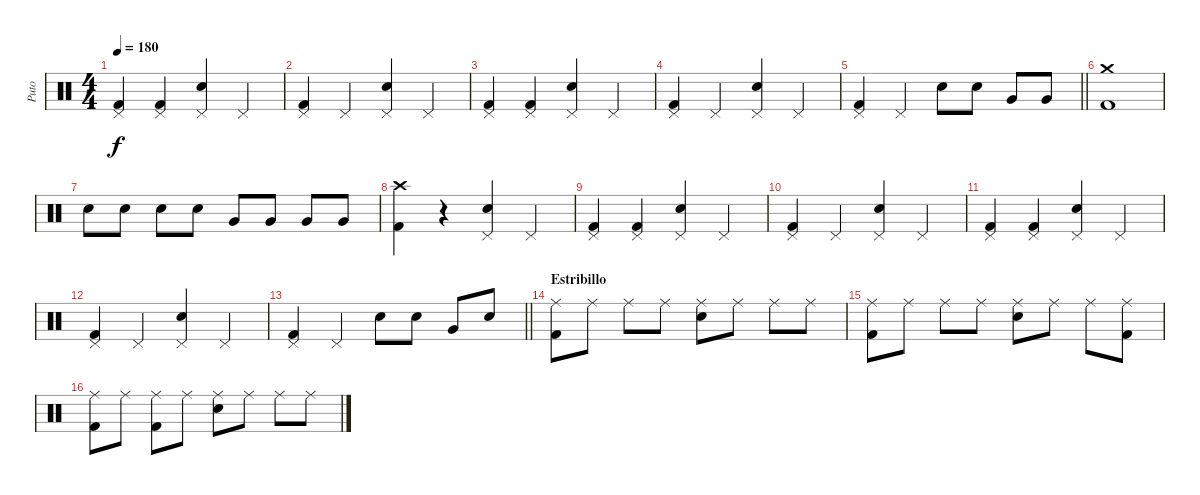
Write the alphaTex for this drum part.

\track ("Puto" "Puto") {instrument percussion}
\staff {score}
\articulation defaults
\ts (4 4)
\tempo 180
\clef neutral
\ks c
("Kick (hit) 2" "Pedal Hi-Hat (hit)").4{dy f} ("Kick (hit) 2" "Pedal Hi-Hat (hit)").4 ("Snare (hit) 2" "Pedal Hi-Hat (hit)").4 "Pedal Hi-Hat (hit)".4 |
("Kick (hit) 2" "Pedal Hi-Hat (hit)").4 "Pedal Hi-Hat (hit)".4 ("Snare (hit) 2" "Pedal Hi-Hat (hit)").4 "Pedal Hi-Hat (hit)".4 |
("Kick (hit) 2" "Pedal Hi-Hat (hit)").4 ("Kick (hit) 2" "Pedal Hi-Hat (hit)").4 ("Snare (hit) 2" "Pedal Hi-Hat (hit)").4 "Pedal Hi-Hat (hit)".4 |
("Kick (hit) 2" "Pedal Hi-Hat (hit)").4 "Pedal Hi-Hat (hit)".4 ("Snare (hit) 2" "Pedal Hi-Hat (hit)").4 "Pedal Hi-Hat (hit)".4 |
\barLineRight lightlight
("Kick (hit) 2" "Pedal Hi-Hat (hit)").4 "Pedal Hi-Hat (hit)".4 "Snare (hit) 2".8 "Snare (hit) 2".8 "Very Low Tom (hit)".8 "Very Low Tom (hit)".8 |
("Kick (hit) 2" "Crash medium (hit)").1 |
"Snare (hit) 2".8 "Snare (hit) 2".8 "Snare (hit) 2".8 "Snare (hit) 2".8 "Very Low Tom (hit)".8 "Very Low Tom (hit)".8 "Very Low Tom (hit)".8 "Very Low Tom (hit)".8 |
("Kick (hit) 2" "Crash high (hit)").4 r.4 ("Snare (hit) 2" "Pedal Hi-Hat (hit)").4 "Pedal Hi-Hat (hit)".4 |
("Kick (hit) 2" "Pedal Hi-Hat (hit)").4 ("Kick (hit) 2" "Pedal Hi-Hat (hit)").4 ("Snare (hit) 2" "Pedal Hi-Hat (hit)").4 "Pedal Hi-Hat (hit)".4 |
("Kick (hit) 2" "Pedal Hi-Hat (hit)").4 "Pedal Hi-Hat (hit)".4 ("Snare (hit) 2" "Pedal Hi-Hat (hit)").4 "Pedal Hi-Hat (hit)".4 |
("Kick (hit) 2" "Pedal Hi-Hat (hit)").4 ("Kick (hit) 2" "Pedal Hi-Hat (hit)").4 ("Snare (hit) 2" "Pedal Hi-Hat (hit)").4 "Pedal Hi-Hat (hit)".4 |
("Kick (hit) 2" "Pedal Hi-Hat (hit)").4 "Pedal Hi-Hat (hit)".4 ("Snare (hit) 2" "Pedal Hi-Hat (hit)").4 "Pedal Hi-Hat (hit)".4 |
\barLineRight lightlight
("Kick (hit) 2" "Pedal Hi-Hat (hit)").4 "Pedal Hi-Hat (hit)".4 "Snare (hit) 2".8 "Snare (hit) 2".8 "Very Low Tom (hit)".8 "Snare (hit) 2".8 |
\section ("" "Estribillo")
("Kick (hit) 2" "Ride (middle)").8 "Ride (middle)".8 "Ride (middle)".8 "Ride (middle)".8 ("Snare (hit) 2" "Ride (middle)").8 "Ride (middle)".8 "Ride (middle)".8 "Ride (middle)".8 |
("Kick (hit) 2" "Ride (middle)").8 "Ride (middle)".8 "Ride (middle)".8 "Ride (middle)".8 ("Snare (hit) 2" "Ride (middle)").8 "Ride (middle)".8 "Ride (middle)".8 ("Kick (hit) 2" "Ride (middle)").8 |
("Kick (hit) 2" "Ride (middle)").8 "Ride (middle)".8 ("Kick (hit) 2" "Ride (middle)").8 "Ride (middle)".8 ("Snare (hit) 2" "Ride (middle)").8 "Ride (middle)".8 "Ride (middle)".8 "Ride (middle)".8
